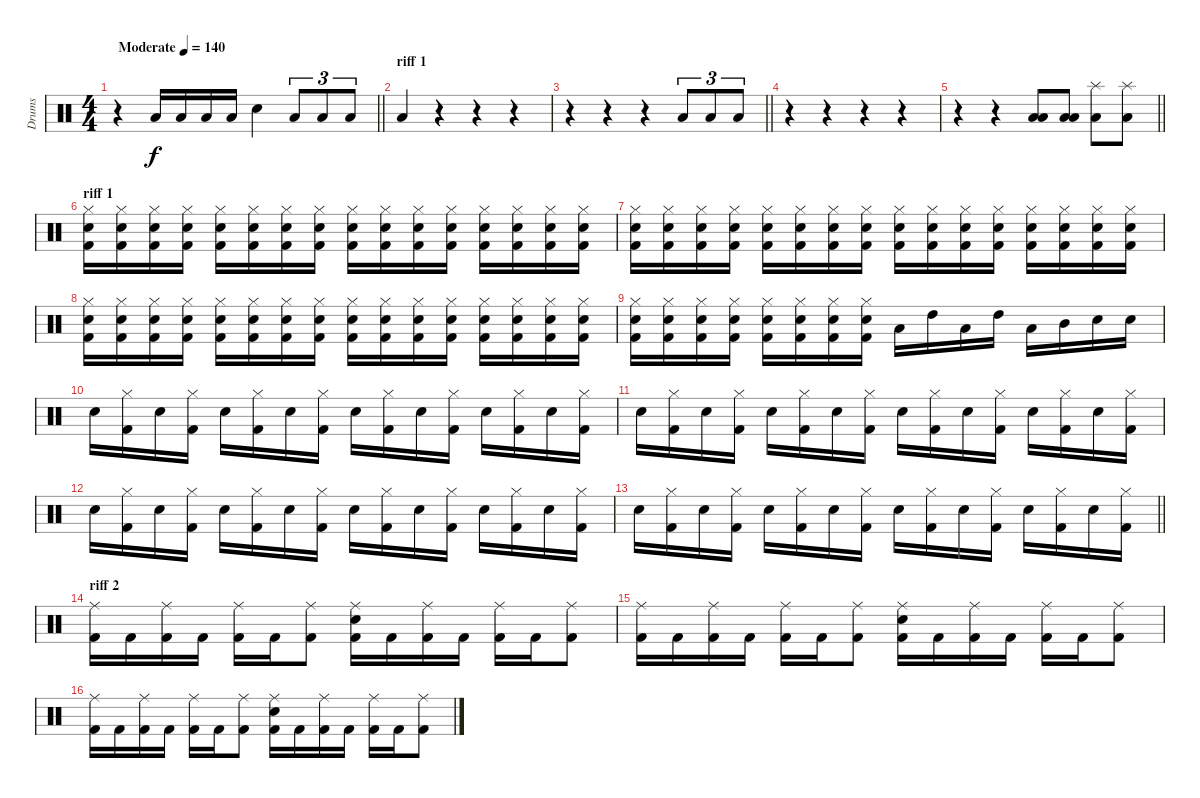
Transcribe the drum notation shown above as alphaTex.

\track ("Drums" "Drums") {instrument percussion}
\staff {score}
\articulation defaults
\ts (4 4)
\tempo (140 "Moderate")
\clef neutral
\barLineRight lightlight
\ks c
r.4{dy f} "Low Floor Tom (hit)".16 "Low Tom (hit)".16 "Low Floor Tom (hit)".16 "Low Tom (hit)".16 "Snare (hit) 2".4 "Low Floor Tom (hit)".8{tu (3 2)} "Low Floor Tom (hit)".8{tu (3 2)} "Low Floor Tom (hit)".8{tu (3 2)} |
\section ("" "riff 1")
"Low Tom (hit)".4 r.4 r.4 r.4 |
\barLineRight lightlight
r.4 r.4 r.4 "Low Floor Tom (hit)".8{tu (3 2)} "Low Floor Tom (hit)".8{tu (3 2)} "Low Floor Tom (hit)".8{tu (3 2)} |
r.4 r.4 r.4 r.4 |
\barLineRight lightlight
r.4 r.4 ("Low Tom (hit)" "Low Floor Tom (hit)").8 ("Low Tom (hit)" "Low Floor Tom (hit)").8 ("Low Floor Tom (hit)" "Splash (hit)").8 ("Low Floor Tom (hit)" "Splash (hit)").8 |
\section ("" "riff 1")
("Kick (hit) 2" "Snare (hit) 2" "Hi-Hat (closed)").16 ("Kick (hit) 2" "Snare (hit) 2" "Hi-Hat (closed)").16 ("Kick (hit) 2" "Snare (hit) 2" "Hi-Hat (closed)").16 ("Kick (hit) 2" "Snare (hit) 2" "Hi-Hat (closed)").16 ("Kick (hit) 2" "Snare (hit) 2" "Hi-Hat (closed)").16 ("Kick (hit) 2" "Snare (hit) 2" "Hi-Hat (closed)").16 ("Kick (hit) 2" "Snare (hit) 2" "Hi-Hat (closed)").16 ("Kick (hit) 2" "Snare (hit) 2" "Hi-Hat (closed)").16 ("Kick (hit) 2" "Snare (hit) 2" "Hi-Hat (closed)").16 ("Kick (hit) 2" "Snare (hit) 2" "Hi-Hat (closed)").16 ("Kick (hit) 2" "Snare (hit) 2" "Hi-Hat (closed)").16 ("Kick (hit) 2" "Snare (hit) 2" "Hi-Hat (closed)").16 ("Kick (hit) 2" "Snare (hit) 2" "Hi-Hat (closed)").16 ("Kick (hit) 2" "Snare (hit) 2" "Hi-Hat (closed)").16 ("Kick (hit) 2" "Snare (hit) 2" "Hi-Hat (closed)").16 ("Kick (hit) 2" "Snare (hit) 2" "Hi-Hat (closed)").16 |
("Kick (hit) 2" "Snare (hit) 2" "Hi-Hat (closed)").16 ("Kick (hit) 2" "Snare (hit) 2" "Hi-Hat (closed)").16 ("Kick (hit) 2" "Snare (hit) 2" "Hi-Hat (closed)").16 ("Kick (hit) 2" "Snare (hit) 2" "Hi-Hat (closed)").16 ("Kick (hit) 2" "Snare (hit) 2" "Hi-Hat (closed)").16 ("Kick (hit) 2" "Snare (hit) 2" "Hi-Hat (closed)").16 ("Kick (hit) 2" "Snare (hit) 2" "Hi-Hat (closed)").16 ("Kick (hit) 2" "Snare (hit) 2" "Hi-Hat (closed)").16 ("Kick (hit) 2" "Snare (hit) 2" "Hi-Hat (closed)").16 ("Kick (hit) 2" "Snare (hit) 2" "Hi-Hat (closed)").16 ("Kick (hit) 2" "Snare (hit) 2" "Hi-Hat (closed)").16 ("Kick (hit) 2" "Snare (hit) 2" "Hi-Hat (closed)").16 ("Kick (hit) 2" "Snare (hit) 2" "Hi-Hat (closed)").16 ("Kick (hit) 2" "Snare (hit) 2" "Hi-Hat (closed)").16 ("Kick (hit) 2" "Snare (hit) 2" "Hi-Hat (closed)").16 ("Kick (hit) 2" "Snare (hit) 2" "Hi-Hat (closed)").16 |
("Kick (hit) 2" "Snare (hit) 2" "Hi-Hat (closed)").16 ("Kick (hit) 2" "Snare (hit) 2" "Hi-Hat (closed)").16 ("Kick (hit) 2" "Snare (hit) 2" "Hi-Hat (closed)").16 ("Kick (hit) 2" "Snare (hit) 2" "Hi-Hat (closed)").16 ("Kick (hit) 2" "Snare (hit) 2" "Hi-Hat (closed)").16 ("Kick (hit) 2" "Snare (hit) 2" "Hi-Hat (closed)").16 ("Kick (hit) 2" "Snare (hit) 2" "Hi-Hat (closed)").16 ("Kick (hit) 2" "Snare (hit) 2" "Hi-Hat (closed)").16 ("Kick (hit) 2" "Snare (hit) 2" "Hi-Hat (closed)").16 ("Kick (hit) 2" "Snare (hit) 2" "Hi-Hat (closed)").16 ("Kick (hit) 2" "Snare (hit) 2" "Hi-Hat (closed)").16 ("Kick (hit) 2" "Snare (hit) 2" "Hi-Hat (closed)").16 ("Kick (hit) 2" "Snare (hit) 2" "Hi-Hat (closed)").16 ("Kick (hit) 2" "Snare (hit) 2" "Hi-Hat (closed)").16 ("Kick (hit) 2" "Snare (hit) 2" "Hi-Hat (closed)").16 ("Kick (hit) 2" "Snare (hit) 2" "Hi-Hat (closed)").16 |
("Kick (hit) 2" "Snare (hit) 2" "Hi-Hat (closed)").16 ("Kick (hit) 2" "Snare (hit) 2" "Hi-Hat (closed)").16 ("Kick (hit) 2" "Snare (hit) 2" "Hi-Hat (closed)").16 ("Kick (hit) 2" "Snare (hit) 2" "Hi-Hat (closed)").16 ("Kick (hit) 2" "Snare (hit) 2" "Hi-Hat (closed)").16 ("Kick (hit) 2" "Snare (hit) 2" "Hi-Hat (closed)").16 ("Kick (hit) 2" "Snare (hit) 2" "Hi-Hat (closed)").16 ("Kick (hit) 2" "Snare (hit) 2" "Hi-Hat (closed)").16 "Low Floor Tom (hit)".16 "High Tom (hit)".16 "Low Floor Tom (hit)".16 "High Tom (hit)".16 "Low Floor Tom (hit)".16 "Mid Tom (hit)".16 "Snare (hit) 2".16 "Snare (hit) 2".16 |
"Snare (hit) 2".16 ("Kick (hit) 2" "Hi-Hat (closed)").16 "Snare (hit) 2".16 ("Kick (hit) 2" "Hi-Hat (closed)").16 "Snare (hit) 2".16 ("Kick (hit) 2" "Hi-Hat (closed)").16 "Snare (hit) 2".16 ("Kick (hit) 2" "Hi-Hat (closed)").16 "Snare (hit) 2".16 ("Kick (hit) 2" "Hi-Hat (closed)").16 "Snare (hit) 2".16 ("Kick (hit) 2" "Hi-Hat (closed)").16 "Snare (hit) 2".16 ("Kick (hit) 2" "Hi-Hat (closed)").16 "Snare (hit) 2".16 ("Kick (hit) 2" "Hi-Hat (closed)").16 |
"Snare (hit) 2".16 ("Kick (hit) 2" "Hi-Hat (closed)").16 "Snare (hit) 2".16 ("Kick (hit) 2" "Hi-Hat (closed)").16 "Snare (hit) 2".16 ("Kick (hit) 2" "Hi-Hat (closed)").16 "Snare (hit) 2".16 ("Kick (hit) 2" "Hi-Hat (closed)").16 "Snare (hit) 2".16 ("Kick (hit) 2" "Hi-Hat (closed)").16 "Snare (hit) 2".16 ("Kick (hit) 2" "Hi-Hat (closed)").16 "Snare (hit) 2".16 ("Kick (hit) 2" "Hi-Hat (closed)").16 "Snare (hit) 2".16 ("Kick (hit) 2" "Hi-Hat (closed)").16 |
"Snare (hit) 2".16 ("Kick (hit) 2" "Hi-Hat (closed)").16 "Snare (hit) 2".16 ("Kick (hit) 2" "Hi-Hat (closed)").16 "Snare (hit) 2".16 ("Kick (hit) 2" "Hi-Hat (closed)").16 "Snare (hit) 2".16 ("Kick (hit) 2" "Hi-Hat (closed)").16 "Snare (hit) 2".16 ("Kick (hit) 2" "Hi-Hat (closed)").16 "Snare (hit) 2".16 ("Kick (hit) 2" "Hi-Hat (closed)").16 "Snare (hit) 2".16 ("Kick (hit) 2" "Hi-Hat (closed)").16 "Snare (hit) 2".16 ("Kick (hit) 2" "Hi-Hat (closed)").16 |
\barLineRight lightlight "Snare (hit) 2".16
("Kick (hit) 2" "Hi-Hat (closed)").16 "Snare (hit) 2".16 ("Kick (hit) 2" "Hi-Hat (closed)").16 "Snare (hit) 2".16 ("Kick (hit) 2" "Hi-Hat (closed)").16 "Snare (hit) 2".16 ("Kick (hit) 2" "Hi-Hat (closed)").16 "Snare (hit) 2".16 ("Kick (hit) 2" "Hi-Hat (closed)").16 "Snare (hit) 2".16 ("Kick (hit) 2" "Hi-Hat (closed)").16 "Snare (hit) 2".16 ("Kick (hit) 2" "Hi-Hat (closed)").16 "Snare (hit) 2".16 ("Kick (hit) 2" "Hi-Hat (closed)").16 |
\section ("" "riff 2")
("Kick (hit) 2" "Ride (middle)").16 "Kick (hit) 2".16 ("Kick (hit) 2" "Ride (middle)").16 "Kick (hit) 2".16 ("Kick (hit) 2" "Ride (middle)").16 "Kick (hit) 2".16 ("Kick (hit) 2" "Ride (middle)").8 ("Kick (hit) 2" "Snare (hit) 2" "Ride (middle)").16 "Kick (hit) 2".16 ("Kick (hit) 2" "Ride (middle)").16 "Kick (hit) 2".16 ("Kick (hit) 2" "Ride (middle)").16 "Kick (hit) 2".16 ("Kick (hit) 2" "Ride (middle)").8 |
("Kick (hit) 2" "Ride (middle)").16 "Kick (hit) 2".16 ("Kick (hit) 2" "Ride (middle)").16 "Kick (hit) 2".16 ("Kick (hit) 2" "Ride (middle)").16 "Kick (hit) 2".16 ("Kick (hit) 2" "Ride (middle)").8 ("Kick (hit) 2" "Snare (hit) 2" "Ride (middle)").16 "Kick (hit) 2".16 ("Kick (hit) 2" "Ride (middle)").16 "Kick (hit) 2".16 ("Kick (hit) 2" "Ride (middle)").16 "Kick (hit) 2".16 ("Kick (hit) 2" "Ride (middle)").8 |
("Kick (hit) 2" "Ride (middle)").16 "Kick (hit) 2".16 ("Kick (hit) 2" "Ride (middle)").16 "Kick (hit) 2".16 ("Kick (hit) 2" "Ride (middle)").16 "Kick (hit) 2".16 ("Kick (hit) 2" "Ride (middle)").8 ("Kick (hit) 2" "Snare (hit) 2" "Ride (middle)").16 "Kick (hit) 2".16 ("Kick (hit) 2" "Ride (middle)").16 "Kick (hit) 2".16 ("Kick (hit) 2" "Ride (middle)").16 "Kick (hit) 2".16 ("Kick (hit) 2" "Ride (middle)").8
